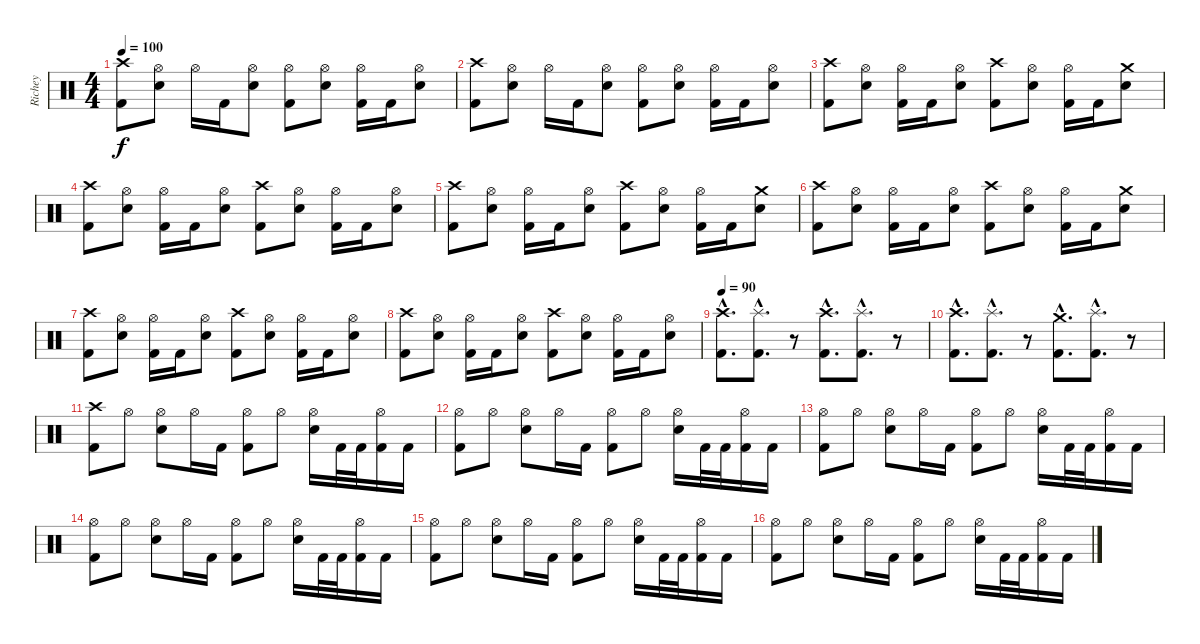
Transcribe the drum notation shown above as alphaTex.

\track ("Richey" "Richey") {instrument percussion}
\staff {score}
\articulation defaults
\ts (4 4)
\tempo 100
\clef neutral
\ks c
("Crash high (hit)" "Kick (hit) 2").8{dy f} ("Hi-Hat (open)" "Snare (hit) 2").8 "Hi-Hat (open)".16 "Kick (hit) 2".16 ("Hi-Hat (open)" "Snare (hit) 2").8 ("Hi-Hat (open)" "Kick (hit) 2").8 ("Hi-Hat (open)" "Snare (hit) 2").8 ("Hi-Hat (open)" "Kick (hit) 2").16 "Kick (hit) 2".16 ("Hi-Hat (open)" "Snare (hit) 2").8 |
("Crash high (hit)" "Kick (hit) 2").8 ("Hi-Hat (open)" "Snare (hit) 2").8 "Hi-Hat (open)".16 "Kick (hit) 2".16 ("Hi-Hat (open)" "Snare (hit) 2").8 ("Hi-Hat (open)" "Kick (hit) 2").8 ("Hi-Hat (open)" "Snare (hit) 2").8 ("Hi-Hat (open)" "Kick (hit) 2").16 "Kick (hit) 2".16 ("Hi-Hat (open)" "Snare (hit) 2").8 |
("Crash high (hit)" "Kick (hit) 2").8 ("Hi-Hat (open)" "Snare (hit) 2").8 ("Hi-Hat (open)" "Kick (hit) 2").16 "Kick (hit) 2".16 ("Hi-Hat (open)" "Snare (hit) 2").8 ("Crash high (hit)" "Kick (hit) 2").8 ("Hi-Hat (open)" "Snare (hit) 2").8 ("Hi-Hat (open)" "Kick (hit) 2").16 "Kick (hit) 2".16 ("Crash medium (hit)" "Snare (hit) 2").8 |
("Crash high (hit)" "Kick (hit) 2").8 ("Hi-Hat (open)" "Snare (hit) 2").8 ("Hi-Hat (open)" "Kick (hit) 2").16 "Kick (hit) 2".16 ("Hi-Hat (open)" "Snare (hit) 2").8 ("Crash high (hit)" "Kick (hit) 2").8 ("Hi-Hat (open)" "Snare (hit) 2").8 ("Hi-Hat (open)" "Kick (hit) 2").16 "Kick (hit) 2".16 ("Hi-Hat (open)" "Snare (hit) 2").8 |
("Crash high (hit)" "Kick (hit) 2").8 ("Hi-Hat (open)" "Snare (hit) 2").8 ("Hi-Hat (open)" "Kick (hit) 2").16 "Kick (hit) 2".16 ("Hi-Hat (open)" "Snare (hit) 2").8 ("Crash high (hit)" "Kick (hit) 2").8 ("Hi-Hat (open)" "Snare (hit) 2").8 ("Hi-Hat (open)" "Kick (hit) 2").16 "Kick (hit) 2".16 ("Crash medium (hit)" "Snare (hit) 2").8 |
("Crash high (hit)" "Kick (hit) 2").8 ("Hi-Hat (open)" "Snare (hit) 2").8 ("Hi-Hat (open)" "Kick (hit) 2").16 "Kick (hit) 2".16 ("Hi-Hat (open)" "Snare (hit) 2").8 ("Crash high (hit)" "Kick (hit) 2").8 ("Hi-Hat (open)" "Snare (hit) 2").8 ("Hi-Hat (open)" "Kick (hit) 2").16 "Kick (hit) 2".16 ("Crash medium (hit)" "Snare (hit) 2").8 |
("Crash high (hit)" "Kick (hit) 2").8 ("Hi-Hat (open)" "Snare (hit) 2").8 ("Hi-Hat (open)" "Kick (hit) 2").16 "Kick (hit) 2".16 ("Hi-Hat (open)" "Snare (hit) 2").8 ("Crash high (hit)" "Kick (hit) 2").8 ("Hi-Hat (open)" "Snare (hit) 2").8 ("Hi-Hat (open)" "Kick (hit) 2").16 "Kick (hit) 2".16 ("Hi-Hat (open)" "Snare (hit) 2").8 |
("Crash high (hit)" "Kick (hit) 2").8 ("Hi-Hat (open)" "Snare (hit) 2").8 ("Hi-Hat (open)" "Kick (hit) 2").16 "Kick (hit) 2".16 ("Hi-Hat (open)" "Snare (hit) 2").8 ("Crash high (hit)" "Kick (hit) 2").8 ("Hi-Hat (open)" "Snare (hit) 2").8 ("Hi-Hat (open)" "Kick (hit) 2").16 "Kick (hit) 2".16 ("Hi-Hat (open)" "Snare (hit) 2").8 |
\tempo 90
("Crash high (hit)"{hac} "Kick (hit) 2"{hac}).8{d} ("Splash (hit)"{hac} "Kick (hit) 2"{hac}).8{d} r.8 ("Crash high (hit)"{hac} "Kick (hit) 2"{hac}).8{d} ("Splash (hit)"{hac} "Kick (hit) 2"{hac}).8{d} r.8 |
("Crash high (hit)"{hac} "Kick (hit) 2"{hac}).8{d} ("Splash (hit)"{hac} "Kick (hit) 2"{hac}).8{d} r.8 ("Crash medium (hit)"{hac} "Kick (hit) 2"{hac}).8{d} ("Splash (hit)"{hac} "Kick (hit) 2"{hac}).8{d} r.8 |
("Crash high (hit)" "Kick (hit) 2").8 "Hi-Hat (open)".8 ("Hi-Hat (open)" "Snare (hit) 2").8 "Hi-Hat (open)".16 "Kick (hit) 2".16 ("Hi-Hat (open)" "Kick (hit) 2").8 "Hi-Hat (open)".8 ("Hi-Hat (open)" "Snare (hit) 2").16 "Kick (hit) 2".32 "Kick (hit) 2".32 ("Hi-Hat (open)" "Kick (hit) 2").16 "Kick (hit) 2".16 |
("Hi-Hat (open)" "Kick (hit) 2").8 "Hi-Hat (open)".8 ("Hi-Hat (open)" "Snare (hit) 2").8 "Hi-Hat (open)".16 "Kick (hit) 2".16 ("Hi-Hat (open)" "Kick (hit) 2").8 "Hi-Hat (open)".8 ("Hi-Hat (open)" "Snare (hit) 2").16 "Kick (hit) 2".32 "Kick (hit) 2".32 ("Hi-Hat (open)" "Kick (hit) 2").16 "Kick (hit) 2".16 |
("Hi-Hat (open)" "Kick (hit) 2").8 "Hi-Hat (open)".8 ("Hi-Hat (open)" "Snare (hit) 2").8 "Hi-Hat (open)".16 "Kick (hit) 2".16 ("Hi-Hat (open)" "Kick (hit) 2").8 "Hi-Hat (open)".8 ("Hi-Hat (open)" "Snare (hit) 2").16 "Kick (hit) 2".32 "Kick (hit) 2".32 ("Hi-Hat (open)" "Kick (hit) 2").16 "Kick (hit) 2".16 |
("Hi-Hat (open)" "Kick (hit) 2").8 "Hi-Hat (open)".8 ("Hi-Hat (open)" "Snare (hit) 2").8 "Hi-Hat (open)".16 "Kick (hit) 2".16 ("Hi-Hat (open)" "Kick (hit) 2").8 "Hi-Hat (open)".8 ("Hi-Hat (open)" "Snare (hit) 2").16 "Kick (hit) 2".32 "Kick (hit) 2".32 ("Hi-Hat (open)" "Kick (hit) 2").16 "Kick (hit) 2".16 |
("Hi-Hat (open)" "Kick (hit) 2").8 "Hi-Hat (open)".8 ("Hi-Hat (open)" "Snare (hit) 2").8 "Hi-Hat (open)".16 "Kick (hit) 2".16 ("Hi-Hat (open)" "Kick (hit) 2").8 "Hi-Hat (open)".8 ("Hi-Hat (open)" "Snare (hit) 2").16 "Kick (hit) 2".32 "Kick (hit) 2".32 ("Hi-Hat (open)" "Kick (hit) 2").16 "Kick (hit) 2".16 |
("Hi-Hat (open)" "Kick (hit) 2").8 "Hi-Hat (open)".8 ("Hi-Hat (open)" "Snare (hit) 2").8 "Hi-Hat (open)".16 "Kick (hit) 2".16 ("Hi-Hat (open)" "Kick (hit) 2").8 "Hi-Hat (open)".8 ("Hi-Hat (open)" "Snare (hit) 2").16 "Kick (hit) 2".32 "Kick (hit) 2".32 ("Hi-Hat (open)" "Kick (hit) 2").16 "Kick (hit) 2".16
